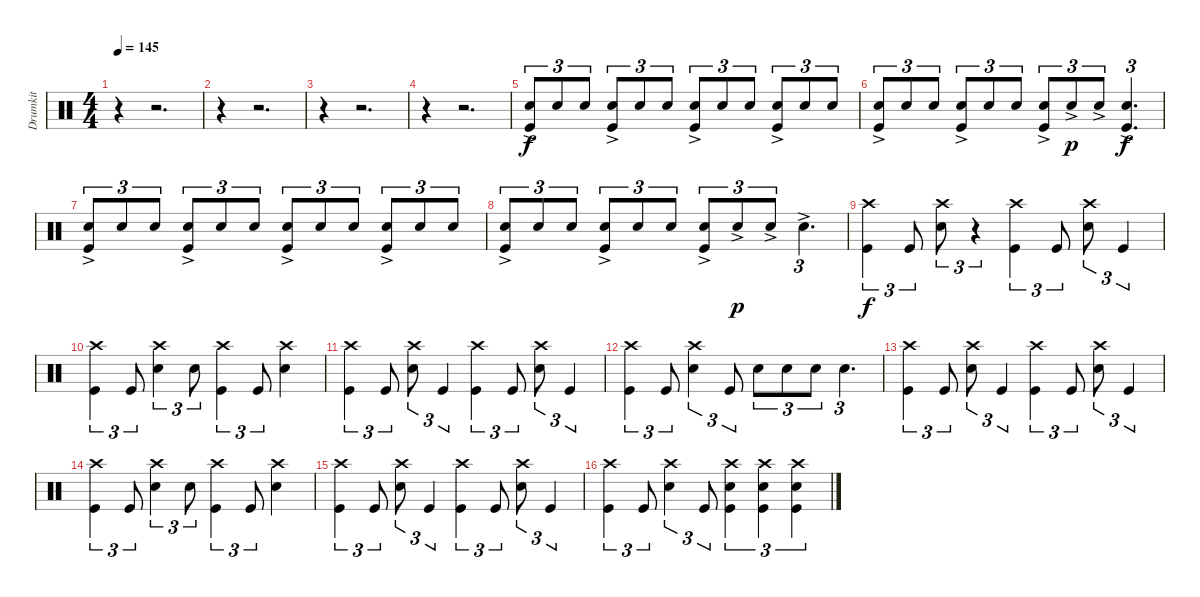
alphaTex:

\track ("Drumkit" "Drumkit") {instrument percussion}
\staff {score}
\articulation defaults
\ts (4 4)
\tempo 145
\clef neutral
\ks c
r.4{dy f} r.2{d} |
r.4 r.2{d} |
r.4 r.2{d} |
r.4 r.2{d} |
("Kick (hit)" "Snare (hit) 2"{ac}).8{tu (3 2)} "Snare (hit) 2".8{tu (3 2)} "Snare (hit) 2".8{tu (3 2)} ("Kick (hit)" "Snare (hit) 2"{ac}).8{tu (3 2)} "Snare (hit) 2".8{tu (3 2)} "Snare (hit) 2".8{tu (3 2)} ("Kick (hit)" "Snare (hit) 2"{ac}).8{tu (3 2)} "Snare (hit) 2".8{tu (3 2)} "Snare (hit) 2".8{tu (3 2)} ("Kick (hit)" "Snare (hit) 2"{ac}).8{tu (3 2)} "Snare (hit) 2".8{tu (3 2)} "Snare (hit) 2".8{tu (3 2)} |
("Kick (hit)" "Snare (hit) 2"{ac}).8{tu (3 2)} "Snare (hit) 2".8{tu (3 2)} "Snare (hit) 2".8{tu (3 2)} ("Kick (hit)" "Snare (hit) 2"{ac}).8{tu (3 2)} "Snare (hit) 2".8{tu (3 2)} "Snare (hit) 2".8{tu (3 2)} ("Kick (hit)" "Snare (hit) 2"{ac}).8{tu (3 2)} "Snare (hit) 2"{ac}.8{tu (3 2) dy p} "Snare (hit) 2"{ac}.8{tu (3 2)} ("Kick (hit)" "Snare (hit) 2"{ac}).4{d tu (3 2) dy f} |
("Kick (hit)" "Snare (hit) 2"{ac}).8{tu (3 2)} "Snare (hit) 2".8{tu (3 2)} "Snare (hit) 2".8{tu (3 2)} ("Kick (hit)" "Snare (hit) 2"{ac}).8{tu (3 2)} "Snare (hit) 2".8{tu (3 2)} "Snare (hit) 2".8{tu (3 2)} ("Kick (hit)" "Snare (hit) 2"{ac}).8{tu (3 2)} "Snare (hit) 2".8{tu (3 2)} "Snare (hit) 2".8{tu (3 2)} ("Kick (hit)" "Snare (hit) 2"{ac}).8{tu (3 2)} "Snare (hit) 2".8{tu (3 2)} "Snare (hit) 2".8{tu (3 2)} |
("Kick (hit)" "Snare (hit) 2"{ac}).8{tu (3 2)} "Snare (hit) 2".8{tu (3 2)} "Snare (hit) 2".8{tu (3 2)} ("Kick (hit)" "Snare (hit) 2"{ac}).8{tu (3 2)} "Snare (hit) 2".8{tu (3 2)} "Snare (hit) 2".8{tu (3 2)} ("Kick (hit)" "Snare (hit) 2"{ac}).8{tu (3 2)} "Snare (hit) 2"{ac}.8{tu (3 2) dy p} "Snare (hit) 2"{ac}.8{tu (3 2)} "Snare (hit) 2"{ac}.4{d tu (3 2)} |
("Crash high (hit)" "Kick (hit)").4{tu (3 2) dy f} "Kick (hit)".8{tu (3 2)} ("Crash high (hit)" "Snare (hit) 2").8{tu (3 2)} r.4{tu (3 2)} ("Crash high (hit)" "Kick (hit)").4{tu (3 2)} "Kick (hit)".8{tu (3 2)} ("Crash high (hit)" "Snare (hit) 2").8{tu (3 2)} "Kick (hit)".4{tu (3 2)} |
("Crash high (hit)" "Kick (hit)").4{tu (3 2)} "Kick (hit)".8{tu (3 2)} ("Crash high (hit)" "Snare (hit) 2").4{tu (3 2)} "Snare (hit) 2".8{tu (3 2)} ("Crash high (hit)" "Kick (hit)").4{tu (3 2)} "Kick (hit)".8{tu (3 2)} ("Crash high (hit)" "Snare (hit) 2").4 |
("Crash high (hit)" "Kick (hit)").4{tu (3 2)} "Kick (hit)".8{tu (3 2)} ("Crash high (hit)" "Snare (hit) 2").8{tu (3 2)} "Kick (hit)".4{tu (3 2)} ("Crash high (hit)" "Kick (hit)").4{tu (3 2)} "Kick (hit)".8{tu (3 2)} ("Crash high (hit)" "Snare (hit) 2").8{tu (3 2)} "Kick (hit)".4{tu (3 2)} |
("Crash high (hit)" "Kick (hit)").4{tu (3 2)} "Kick (hit)".8{tu (3 2)} ("Crash high (hit)" "Snare (hit) 2").4{tu (3 2)} "Kick (hit)".8{tu (3 2)} "Snare (hit) 2".8{tu (3 2)} "Snare (hit) 2".8{tu (3 2)} "Snare (hit) 2".8{tu (3 2)} "Snare (hit) 2".4{d tu (3 2)} |
("Crash high (hit)" "Kick (hit)").4{tu (3 2)} "Kick (hit)".8{tu (3 2)} ("Crash high (hit)" "Snare (hit) 2").8{tu (3 2)} "Kick (hit)".4{tu (3 2)} ("Crash high (hit)" "Kick (hit)").4{tu (3 2)} "Kick (hit)".8{tu (3 2)} ("Crash high (hit)" "Snare (hit) 2").8{tu (3 2)} "Kick (hit)".4{tu (3 2)} |
("Crash high (hit)" "Kick (hit)").4{tu (3 2)} "Kick (hit)".8{tu (3 2)} ("Crash high (hit)" "Snare (hit) 2").4{tu (3 2)} "Snare (hit) 2".8{tu (3 2)} ("Crash high (hit)" "Kick (hit)").4{tu (3 2)} "Kick (hit)".8{tu (3 2)} ("Crash high (hit)" "Snare (hit) 2").4 |
("Crash high (hit)" "Kick (hit)").4{tu (3 2)} "Kick (hit)".8{tu (3 2)} ("Crash high (hit)" "Snare (hit) 2").8{tu (3 2)} "Kick (hit)".4{tu (3 2)} ("Crash high (hit)" "Kick (hit)").4{tu (3 2)} "Kick (hit)".8{tu (3 2)} ("Crash high (hit)" "Snare (hit) 2").8{tu (3 2)} "Kick (hit)".4{tu (3 2)} |
("Crash high (hit)" "Kick (hit)").4{tu (3 2)} "Kick (hit)".8{tu (3 2)} ("Crash high (hit)" "Snare (hit) 2").4{tu (3 2)} "Kick (hit)".8{tu (3 2)} ("Crash high (hit)" "Snare (hit) 2" "Kick (hit)").4{tu (3 2)} ("Crash high (hit)" "Snare (hit) 2" "Kick (hit)").4{tu (3 2)} ("Crash high (hit)" "Snare (hit) 2" "Kick (hit)").4{tu (3 2)}
